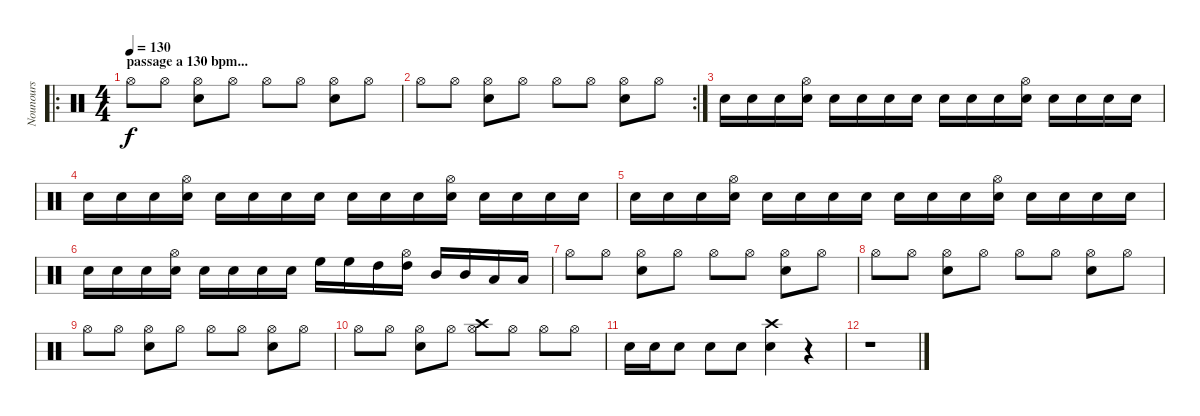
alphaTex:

\track ("Nounours" "Nounours") {instrument percussion}
\staff {score}
\articulation defaults
\ro
\ts (4 4)
\section ("" "passage a 130 bpm...")
\tempo 130
\clef neutral
\ks c "Hi-Hat (open)".8{dy f} "Hi-Hat (open)".8
("Hi-Hat (open)" "Snare (hit) 2").8 "Hi-Hat (open)".8 "Hi-Hat (open)".8 "Hi-Hat (open)".8 ("Hi-Hat (open)" "Snare (hit) 2").8 "Hi-Hat (open)".8 |
\rc 2 "Hi-Hat (open)".8 "Hi-Hat (open)".8
("Hi-Hat (open)" "Snare (hit) 2").8 "Hi-Hat (open)".8 "Hi-Hat (open)".8 "Hi-Hat (open)".8 ("Hi-Hat (open)" "Snare (hit) 2").8 "Hi-Hat (open)".8 |
"Snare (hit) 2".16 "Snare (hit) 2".16 "Snare (hit) 2".16 ("Hi-Hat (open)" "Snare (hit) 2").16 "Snare (hit) 2".16 "Snare (hit) 2".16 "Snare (hit) 2".16 "Snare (hit) 2".16 "Snare (hit) 2".16 "Snare (hit) 2".16 "Snare (hit) 2".16 ("Hi-Hat (open)" "Snare (hit) 2").16 "Snare (hit) 2".16 "Snare (hit) 2".16 "Snare (hit) 2".16 "Snare (hit) 2".16 |
"Snare (hit) 2".16 "Snare (hit) 2".16 "Snare (hit) 2".16 ("Hi-Hat (open)" "Snare (hit) 2").16 "Snare (hit) 2".16 "Snare (hit) 2".16 "Snare (hit) 2".16 "Snare (hit) 2".16 "Snare (hit) 2".16 "Snare (hit) 2".16 "Snare (hit) 2".16 ("Hi-Hat (open)" "Snare (hit) 2").16 "Snare (hit) 2".16 "Snare (hit) 2".16 "Snare (hit) 2".16 "Snare (hit) 2".16 |
"Snare (hit) 2".16 "Snare (hit) 2".16 "Snare (hit) 2".16 ("Hi-Hat (open)" "Snare (hit) 2").16 "Snare (hit) 2".16 "Snare (hit) 2".16 "Snare (hit) 2".16 "Snare (hit) 2".16 "Snare (hit) 2".16 "Snare (hit) 2".16 "Snare (hit) 2".16 ("Hi-Hat (open)" "Snare (hit) 2").16 "Snare (hit) 2".16 "Snare (hit) 2".16 "Snare (hit) 2".16 "Snare (hit) 2".16 |
"Snare (hit) 2".16 "Snare (hit) 2".16 "Snare (hit) 2".16 ("Hi-Hat (open)" "Snare (hit) 2").16 "Snare (hit) 2".16 "Snare (hit) 2".16 "Snare (hit) 2".16 "Snare (hit) 2".16 "High Floor Tom (hit)".16 "High Floor Tom (hit)".16 "High Tom (hit)".16 ("Hi-Hat (open)" "High Tom (hit)").16 "Mid Tom (hit)".16 "Mid Tom (hit)".16 "Low Tom (hit)".16 "Low Tom (hit)".16 |
"Hi-Hat (open)".8 "Hi-Hat (open)".8 ("Hi-Hat (open)" "Snare (hit) 2").8 "Hi-Hat (open)".8 "Hi-Hat (open)".8 "Hi-Hat (open)".8 ("Hi-Hat (open)" "Snare (hit) 2").8 "Hi-Hat (open)".8 |
"Hi-Hat (open)".8 "Hi-Hat (open)".8 ("Hi-Hat (open)" "Snare (hit) 2").8 "Hi-Hat (open)".8 "Hi-Hat (open)".8 "Hi-Hat (open)".8 ("Hi-Hat (open)" "Snare (hit) 2").8 "Hi-Hat (open)".8 |
"Hi-Hat (open)".8 "Hi-Hat (open)".8 ("Hi-Hat (open)" "Snare (hit) 2").8 "Hi-Hat (open)".8 "Hi-Hat (open)".8 "Hi-Hat (open)".8 ("Hi-Hat (open)" "Snare (hit) 2").8 "Hi-Hat (open)".8 |
"Hi-Hat (open)".8 "Hi-Hat (open)".8 ("Hi-Hat (open)" "Snare (hit) 2").8 "Hi-Hat (open)".8 ("Crash high (hit)" "Hi-Hat (open)").8 "Hi-Hat (open)".8 "Hi-Hat (open)".8 "Hi-Hat (open)".8 |
"Snare (hit) 2".16 "Snare (hit) 2".16 "Snare (hit) 2".8 "Snare (hit) 2".8 "Snare (hit) 2".8 ("Crash high (hit)" "Snare (hit) 2").4 r.4 |
r.1
